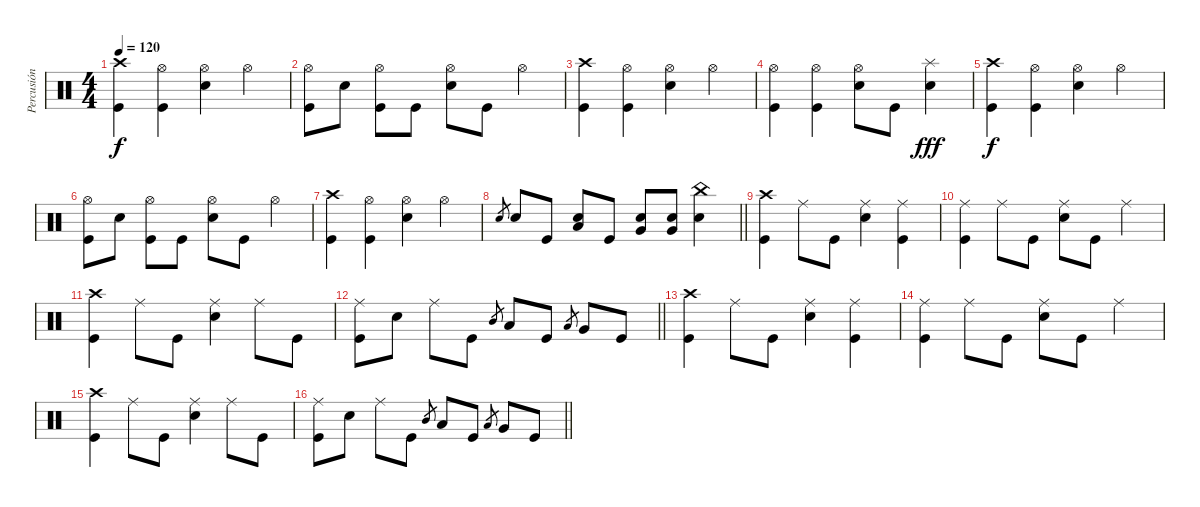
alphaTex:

\track ("Percusión" "Percusión") {instrument percussion}
\staff {score}
\articulation defaults
\ts (4 4)
\tempo 120
\clef neutral
\ks c
("Crash high (hit)" "Kick (hit)").4{dy f} ("Hi-Hat (open)" "Kick (hit)").4 ("Hi-Hat (open)" "Electric Snare (hit)").4 "Hi-Hat (open)".4 |
("Hi-Hat (open)" "Kick (hit)").8 "Electric Snare (hit)".8 ("Hi-Hat (open)" "Kick (hit)").8 "Kick (hit)".8 ("Hi-Hat (open)" "Electric Snare (hit)").8 "Kick (hit)".8 "Hi-Hat (open)".4 |
("Crash high (hit)" "Kick (hit)").4 ("Hi-Hat (open)" "Kick (hit)").4 ("Hi-Hat (open)" "Electric Snare (hit)").4 "Hi-Hat (open)".4 |
("Hi-Hat (open)" "Kick (hit)").4 ("Hi-Hat (open)" "Kick (hit)").4 ("Hi-Hat (open)" "Electric Snare (hit)").8 "Kick (hit)".8 ("Splash (hit)" "Electric Snare (hit)").4{dy fff} |
("Crash high (hit)" "Kick (hit)").4{dy f} ("Hi-Hat (open)" "Kick (hit)").4 ("Hi-Hat (open)" "Electric Snare (hit)").4 "Hi-Hat (open)".4 |
("Hi-Hat (open)" "Kick (hit)").8 "Electric Snare (hit)".8 ("Hi-Hat (open)" "Kick (hit)").8 "Kick (hit)".8 ("Hi-Hat (open)" "Electric Snare (hit)").8 "Kick (hit)".8 "Hi-Hat (open)".4 |
("Crash high (hit)" "Kick (hit)").4 ("Hi-Hat (open)" "Kick (hit)").4 ("Hi-Hat (open)" "Electric Snare (hit)").4 "Hi-Hat (open)".4 |
\barLineRight lightlight "Electric Snare (hit)".8{gr} "Electric Snare (hit)".8 "Kick (hit)".8
("Low Tom (hit)" "Electric Snare (hit)").8 "Kick (hit)".8 ("Very Low Tom (hit)" "Electric Snare (hit)").8 ("Very Low Tom (hit)" "Electric Snare (hit)").8 ("China (hit)" "Electric Snare (hit)").4 |
("Crash high (hit)" "Kick (hit)").4 "Ride (middle)".8 "Kick (hit)".8 ("Ride (middle)" "Electric Snare (hit)").4 ("Ride (middle)" "Kick (hit)").4 |
("Ride (middle)" "Kick (hit)").4 "Ride (middle)".8 "Kick (hit)".8 ("Ride (middle)" "Electric Snare (hit)").8 "Kick (hit)".8 "Ride (middle)".4 |
("Crash high (hit)" "Kick (hit)").4 "Ride (middle)".8 "Kick (hit)".8 ("Ride (middle)" "Electric Snare (hit)").4 "Ride (middle)".8 "Kick (hit)".8 |
\barLineRight lightlight
("Ride (middle)" "Kick (hit)").8 "Electric Snare (hit)".8 "Ride (middle)".8 "Kick (hit)".8 "Mid Tom (hit)".8{gr} "Low Tom (hit)".8 "Kick (hit)".8 "Low Tom (hit)".8{gr} "Very Low Tom (hit)".8 "Kick (hit)".8 |
("Crash high (hit)" "Kick (hit)").4 "Ride (middle)".8 "Kick (hit)".8 ("Ride (middle)" "Electric Snare (hit)").4 ("Ride (middle)" "Kick (hit)").4 |
("Ride (middle)" "Kick (hit)").4 "Ride (middle)".8 "Kick (hit)".8 ("Ride (middle)" "Electric Snare (hit)").8 "Kick (hit)".8 "Ride (middle)".4 |
("Crash high (hit)" "Kick (hit)").4 "Ride (middle)".8 "Kick (hit)".8 ("Ride (middle)" "Electric Snare (hit)").4 "Ride (middle)".8 "Kick (hit)".8 |
\barLineRight lightlight
("Ride (middle)" "Kick (hit)").8 "Electric Snare (hit)".8 "Ride (middle)".8 "Kick (hit)".8 "Mid Tom (hit)".8{gr} "Low Tom (hit)".8 "Kick (hit)".8 "Low Tom (hit)".8{gr} "Very Low Tom (hit)".8 "Kick (hit)".8
